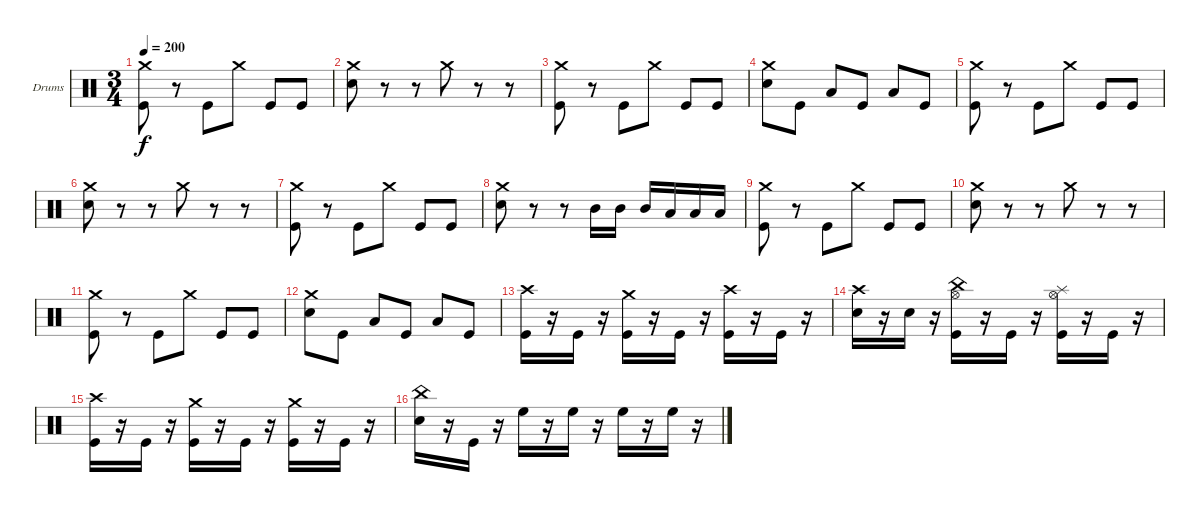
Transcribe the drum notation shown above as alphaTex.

\bracketExtendMode groupsimilarinstruments
\firstSystemTrackNameOrientation horizontal
\otherSystemsTrackNameOrientation horizontal
\track ("Drumkit" "Drums") {instrument percussion}
\staff {score}
\articulation defaults
\ts (3 4)
\tempo 200
\clef neutral
\ks c
("Kick (hit)" "Crash medium (hit)").8{dy f} r.8 "Kick (hit)".8 "Crash medium (hit)".8 "Kick (hit)".8 "Kick (hit)".8 |
("Snare (hit) 2" "Crash medium (hit)").8 r.8 r.8 "Crash medium (hit)".8 r.8 r.8 |
("Kick (hit)" "Crash medium (hit)").8 r.8 "Kick (hit)".8 "Crash medium (hit)".8 "Kick (hit)".8 "Kick (hit)".8 |
("Snare (hit) 2" "Crash medium (hit)").8 "Kick (hit)".8 "Low Tom (hit)".8 "Kick (hit)".8 "Low Tom (hit)".8 "Kick (hit)".8 |
("Kick (hit)" "Crash medium (hit)").8 r.8 "Kick (hit)".8 "Crash medium (hit)".8 "Kick (hit)".8 "Kick (hit)".8 |
("Snare (hit) 2" "Crash medium (hit)").8 r.8 r.8 "Crash medium (hit)".8 r.8 r.8 |
("Kick (hit)" "Crash medium (hit)").8 r.8 "Kick (hit)".8 "Crash medium (hit)".8 "Kick (hit)".8 "Kick (hit)".8 |
("Snare (hit) 2" "Crash medium (hit)").8 r.8 r.8 "Mid Tom (hit)".16 "Mid Tom (hit)".16 "Mid Tom (hit)".16 "Low Tom (hit)".16 "Low Tom (hit)".16 "Low Tom (hit)".16 |
("Kick (hit)" "Crash medium (hit)").8 r.8 "Kick (hit)".8 "Crash medium (hit)".8 "Kick (hit)".8 "Kick (hit)".8 |
("Snare (hit) 2" "Crash medium (hit)").8 r.8 r.8 "Crash medium (hit)".8 r.8 r.8 |
("Kick (hit)" "Crash medium (hit)").8 r.8 "Kick (hit)".8 "Crash medium (hit)".8 "Kick (hit)".8 "Kick (hit)".8 |
("Snare (hit) 2" "Crash medium (hit)").8 "Kick (hit)".8 "Low Tom (hit)".8 "Kick (hit)".8 "Low Tom (hit)".8 "Kick (hit)".8 |
("Crash high (hit)" "Kick (hit)").16 r.16 "Kick (hit)".16 r.16 ("Crash medium (hit)" "Kick (hit)").16 r.16 "Kick (hit)".16 r.16 ("Crash high (hit)" "Kick (hit)").16 r.16 "Kick (hit)".16 r.16 |
("Crash high (hit)" "Snare (hit) 2").16 r.16 "Snare (hit) 2".16 r.16 ("China (hit)" "Hi-Hat (open)" "Kick (hit)").16 r.16 "Kick (hit)".16 r.16 ("Splash (hit)" "Hi-Hat (open)" "Kick (hit)").16 r.16 "Kick (hit)".16 r.16 |
("Crash high (hit)" "Kick (hit)").16 r.16 "Kick (hit)".16 r.16 ("Crash medium (hit)" "Kick (hit)").16 r.16 "Kick (hit)".16 r.16 ("Crash medium (hit)" "Kick (hit)").16 r.16 "Kick (hit)".16 r.16 |
("China (hit)" "Snare (hit) 2").16 r.16 "Kick (hit)".16 r.16 "High Floor Tom (hit)".16 r.16 "High Floor Tom (hit)".16 r.16 "High Floor Tom (hit)".16 r.16 "High Floor Tom (hit)".16 r.16
